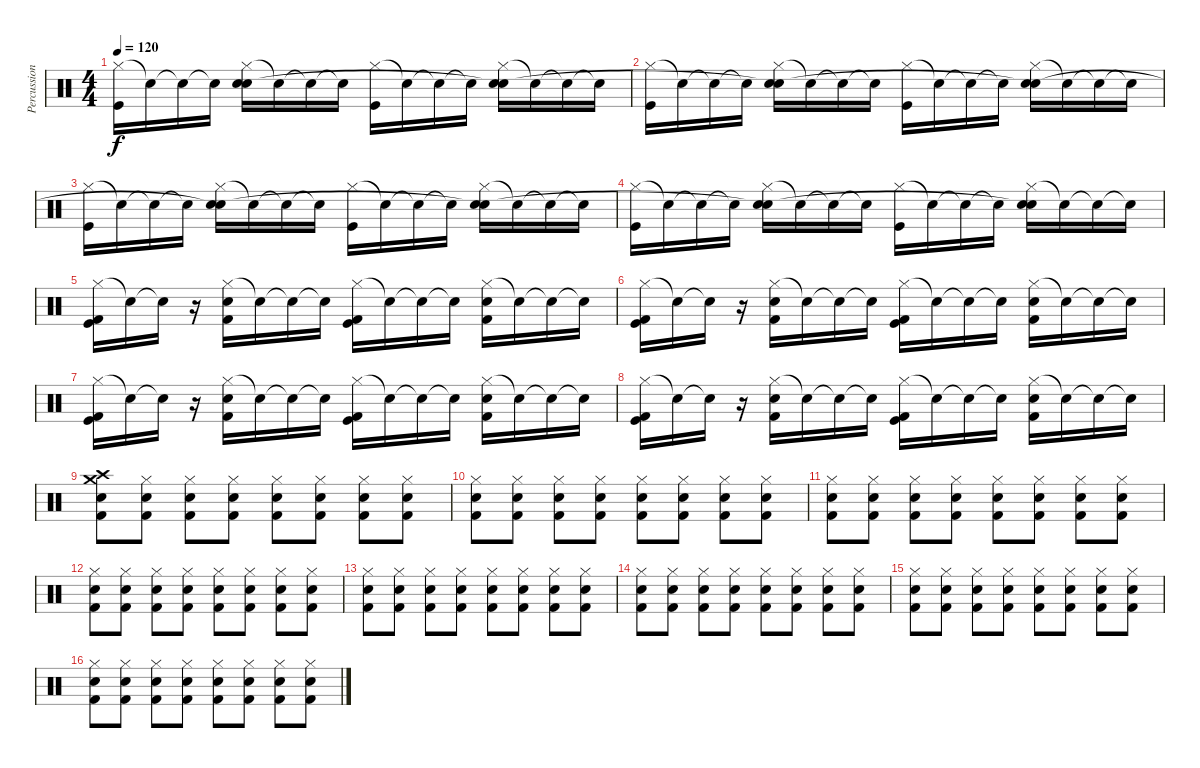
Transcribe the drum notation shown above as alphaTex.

\track ("Percussion" "Percussion") {instrument percussion}
\staff {score}
\articulation defaults
\ts (4 4)
\tempo 120
\clef neutral
\ks c
("Hi-Hat (closed)" "Kick (hit)").16{dy f} "Snare (hit)"{t}.16 "Snare (hit)"{t}.16 "Snare (hit)"{t}.16 ("Hi-Hat (closed)" "Electric Snare (hit)" "Snare (hit)"{t}).16 "Snare (hit)"{t}.16 "Snare (hit)"{t}.16 "Snare (hit)"{t}.16 ("Hi-Hat (closed)" "Kick (hit)").16 "Snare (hit)"{t}.16 "Snare (hit)"{t}.16 "Snare (hit)"{t}.16 ("Hi-Hat (closed)" "Electric Snare (hit)" "Snare (hit)"{t}).16 "Snare (hit)"{t}.16 "Snare (hit)"{t}.16 "Snare (hit)"{t}.16 |
("Hi-Hat (closed)" "Kick (hit)").16 "Snare (hit)"{t}.16 "Snare (hit)"{t}.16 "Snare (hit)"{t}.16 ("Hi-Hat (closed)" "Electric Snare (hit)" "Snare (hit)"{t}).16 "Snare (hit)"{t}.16 "Snare (hit)"{t}.16 "Snare (hit)"{t}.16 ("Hi-Hat (closed)" "Kick (hit)").16 "Snare (hit)"{t}.16 "Snare (hit)"{t}.16 "Snare (hit)"{t}.16 ("Hi-Hat (closed)" "Electric Snare (hit)" "Snare (hit)"{t}).16 "Snare (hit)"{t}.16 "Snare (hit)"{t}.16 "Snare (hit)"{t}.16 |
("Hi-Hat (closed)" "Kick (hit)").16 "Snare (hit)"{t}.16 "Snare (hit)"{t}.16 "Snare (hit)"{t}.16 ("Hi-Hat (closed)" "Electric Snare (hit)" "Snare (hit)"{t}).16 "Snare (hit)"{t}.16 "Snare (hit)"{t}.16 "Snare (hit)"{t}.16 ("Hi-Hat (closed)" "Kick (hit)").16 "Snare (hit)"{t}.16 "Snare (hit)"{t}.16 "Snare (hit)"{t}.16 ("Hi-Hat (closed)" "Electric Snare (hit)" "Snare (hit)"{t}).16 "Snare (hit)"{t}.16 "Snare (hit)"{t}.16 "Snare (hit)"{t}.16 |
("Hi-Hat (closed)" "Kick (hit)").16 "Snare (hit)"{t}.16 "Snare (hit)"{t}.16 "Snare (hit)"{t}.16 ("Hi-Hat (closed)" "Electric Snare (hit)" "Snare (hit)"{t}).16 "Snare (hit)"{t}.16 "Snare (hit)"{t}.16 "Snare (hit)"{t}.16 ("Hi-Hat (closed)" "Kick (hit)").16 "Snare (hit)"{t}.16 "Snare (hit)"{t}.16 "Snare (hit)"{t}.16 ("Hi-Hat (closed)" "Electric Snare (hit)" "Snare (hit)"{t}).16 "Snare (hit)"{t}.16 "Snare (hit)"{t}.16 "Snare (hit)"{t}.16 |
("Hi-Hat (closed)" "Kick (hit) 2" "Kick (hit)").16 "Snare (hit)"{t}.16 "Snare (hit)"{t}.16 r.16 ("Hi-Hat (closed)" "Electric Snare (hit)" "Kick (hit) 2").16 "Snare (hit)"{t}.16 "Snare (hit)"{t}.16 "Snare (hit)"{t}.16 ("Hi-Hat (closed)" "Kick (hit) 2" "Kick (hit)").16 "Snare (hit)"{t}.16 "Snare (hit)"{t}.16 "Snare (hit)"{t}.16 ("Hi-Hat (closed)" "Electric Snare (hit)" "Kick (hit) 2").16 "Snare (hit)"{t}.16 "Snare (hit)"{t}.16 "Snare (hit)"{t}.16 |
("Hi-Hat (closed)" "Kick (hit) 2" "Kick (hit)").16 "Snare (hit)"{t}.16 "Snare (hit)"{t}.16 r.16 ("Hi-Hat (closed)" "Electric Snare (hit)" "Kick (hit) 2").16 "Snare (hit)"{t}.16 "Snare (hit)"{t}.16 "Snare (hit)"{t}.16 ("Hi-Hat (closed)" "Kick (hit) 2" "Kick (hit)").16 "Snare (hit)"{t}.16 "Snare (hit)"{t}.16 "Snare (hit)"{t}.16 ("Hi-Hat (closed)" "Electric Snare (hit)" "Kick (hit) 2").16 "Snare (hit)"{t}.16 "Snare (hit)"{t}.16 "Snare (hit)"{t}.16 |
("Hi-Hat (closed)" "Kick (hit) 2" "Kick (hit)").16 "Snare (hit)"{t}.16 "Snare (hit)"{t}.16 r.16 ("Hi-Hat (closed)" "Electric Snare (hit)" "Kick (hit) 2").16 "Snare (hit)"{t}.16 "Snare (hit)"{t}.16 "Snare (hit)"{t}.16 ("Hi-Hat (closed)" "Kick (hit) 2" "Kick (hit)").16 "Snare (hit)"{t}.16 "Snare (hit)"{t}.16 "Snare (hit)"{t}.16 ("Hi-Hat (closed)" "Electric Snare (hit)" "Kick (hit) 2").16 "Snare (hit)"{t}.16 "Snare (hit)"{t}.16 "Snare (hit)"{t}.16 |
("Hi-Hat (closed)" "Kick (hit) 2" "Kick (hit)").16 "Snare (hit)"{t}.16 "Snare (hit)"{t}.16 r.16 ("Hi-Hat (closed)" "Electric Snare (hit)" "Kick (hit) 2").16 "Snare (hit)"{t}.16 "Snare (hit)"{t}.16 "Snare (hit)"{t}.16 ("Hi-Hat (closed)" "Kick (hit) 2" "Kick (hit)").16 "Snare (hit)"{t}.16 "Snare (hit)"{t}.16 "Snare (hit)"{t}.16 ("Hi-Hat (closed)" "Electric Snare (hit)" "Kick (hit) 2").16 "Snare (hit)"{t}.16 "Snare (hit)"{t}.16 "Snare (hit)"{t}.16 |
("Kick (hit) 2" "Crash high (hit)" "Crash medium (hit)" "Snare (hit) 2").8 ("Hi-Hat (closed)" "Kick (hit) 2" "Snare (hit) 2").8 ("Hi-Hat (closed)" "Kick (hit) 2" "Snare (hit) 2").8 ("Hi-Hat (closed)" "Kick (hit) 2" "Snare (hit) 2").8 ("Hi-Hat (closed)" "Kick (hit) 2" "Snare (hit) 2").8 ("Hi-Hat (closed)" "Kick (hit) 2" "Snare (hit) 2").8 ("Hi-Hat (closed)" "Kick (hit) 2" "Snare (hit) 2").8 ("Hi-Hat (closed)" "Kick (hit) 2" "Snare (hit) 2").8 |
("Hi-Hat (closed)" "Kick (hit) 2" "Snare (hit) 2").8 ("Hi-Hat (closed)" "Kick (hit) 2" "Snare (hit) 2").8 ("Hi-Hat (closed)" "Kick (hit) 2" "Snare (hit) 2").8 ("Hi-Hat (closed)" "Kick (hit) 2" "Snare (hit) 2").8 ("Hi-Hat (closed)" "Kick (hit) 2" "Snare (hit) 2").8 ("Hi-Hat (closed)" "Kick (hit) 2" "Snare (hit) 2").8 ("Hi-Hat (closed)" "Kick (hit) 2" "Snare (hit) 2").8 ("Hi-Hat (closed)" "Kick (hit) 2" "Snare (hit) 2").8 |
("Hi-Hat (closed)" "Kick (hit) 2" "Snare (hit) 2").8 ("Hi-Hat (closed)" "Kick (hit) 2" "Snare (hit) 2").8 ("Hi-Hat (closed)" "Kick (hit) 2" "Snare (hit) 2").8 ("Hi-Hat (closed)" "Kick (hit) 2" "Snare (hit) 2").8 ("Hi-Hat (closed)" "Kick (hit) 2" "Snare (hit) 2").8 ("Hi-Hat (closed)" "Kick (hit) 2" "Snare (hit) 2").8 ("Hi-Hat (closed)" "Kick (hit) 2" "Snare (hit) 2").8 ("Hi-Hat (closed)" "Kick (hit) 2" "Snare (hit) 2").8 |
("Hi-Hat (closed)" "Kick (hit) 2" "Snare (hit) 2").8 ("Hi-Hat (closed)" "Kick (hit) 2" "Snare (hit) 2").8 ("Hi-Hat (closed)" "Kick (hit) 2" "Snare (hit) 2").8 ("Hi-Hat (closed)" "Kick (hit) 2" "Snare (hit) 2").8 ("Hi-Hat (closed)" "Kick (hit) 2" "Snare (hit) 2").8 ("Hi-Hat (closed)" "Kick (hit) 2" "Snare (hit) 2").8 ("Hi-Hat (closed)" "Kick (hit) 2" "Snare (hit) 2").8 ("Hi-Hat (closed)" "Kick (hit) 2" "Snare (hit) 2").8 |
("Hi-Hat (closed)" "Kick (hit) 2" "Snare (hit) 2").8 ("Hi-Hat (closed)" "Kick (hit) 2" "Snare (hit) 2").8 ("Hi-Hat (closed)" "Kick (hit) 2" "Snare (hit) 2").8 ("Hi-Hat (closed)" "Kick (hit) 2" "Snare (hit) 2").8 ("Hi-Hat (closed)" "Kick (hit) 2" "Snare (hit) 2").8 ("Hi-Hat (closed)" "Kick (hit) 2" "Snare (hit) 2").8 ("Hi-Hat (closed)" "Kick (hit) 2" "Snare (hit) 2").8 ("Hi-Hat (closed)" "Kick (hit) 2" "Snare (hit) 2").8 |
("Hi-Hat (closed)" "Kick (hit) 2" "Snare (hit) 2").8 ("Hi-Hat (closed)" "Kick (hit) 2" "Snare (hit) 2").8 ("Hi-Hat (closed)" "Kick (hit) 2" "Snare (hit) 2").8 ("Hi-Hat (closed)" "Kick (hit) 2" "Snare (hit) 2").8 ("Hi-Hat (closed)" "Kick (hit) 2" "Snare (hit) 2").8 ("Hi-Hat (closed)" "Kick (hit) 2" "Snare (hit) 2").8 ("Hi-Hat (closed)" "Kick (hit) 2" "Snare (hit) 2").8 ("Hi-Hat (closed)" "Kick (hit) 2" "Snare (hit) 2").8 |
("Hi-Hat (closed)" "Kick (hit) 2" "Snare (hit) 2").8 ("Hi-Hat (closed)" "Kick (hit) 2" "Snare (hit) 2").8 ("Hi-Hat (closed)" "Kick (hit) 2" "Snare (hit) 2").8 ("Hi-Hat (closed)" "Kick (hit) 2" "Snare (hit) 2").8 ("Hi-Hat (closed)" "Kick (hit) 2" "Snare (hit) 2").8 ("Hi-Hat (closed)" "Kick (hit) 2" "Snare (hit) 2").8 ("Hi-Hat (closed)" "Kick (hit) 2" "Snare (hit) 2").8 ("Hi-Hat (closed)" "Kick (hit) 2" "Snare (hit) 2").8 |
("Hi-Hat (closed)" "Kick (hit) 2" "Snare (hit) 2").8 ("Hi-Hat (closed)" "Kick (hit) 2" "Snare (hit) 2").8 ("Hi-Hat (closed)" "Kick (hit) 2" "Snare (hit) 2").8 ("Hi-Hat (closed)" "Kick (hit) 2" "Snare (hit) 2").8 ("Hi-Hat (closed)" "Kick (hit) 2" "Snare (hit) 2").8 ("Hi-Hat (closed)" "Kick (hit) 2" "Snare (hit) 2").8 ("Hi-Hat (closed)" "Kick (hit) 2" "Snare (hit) 2").8 ("Hi-Hat (closed)" "Kick (hit) 2" "Snare (hit) 2").8
